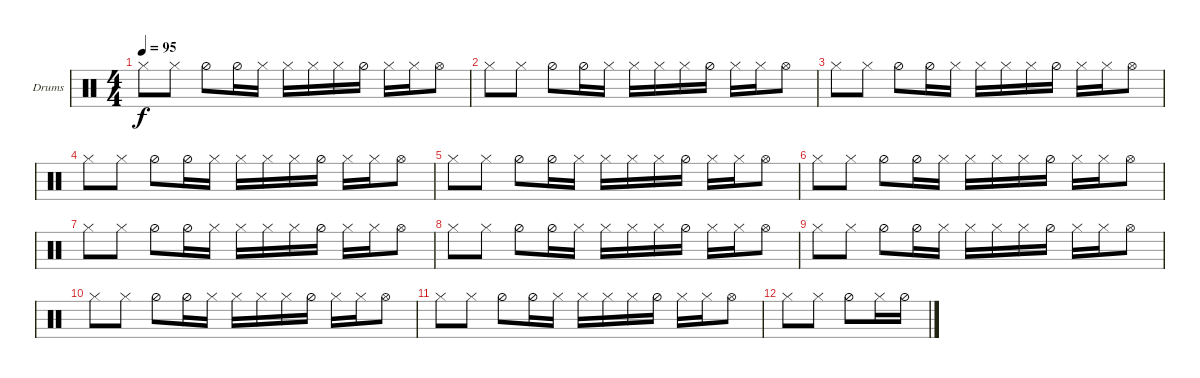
\defaultSystemsLayout 4
\bracketExtendMode groupsimilarinstruments
\firstSystemTrackNameOrientation horizontal
\otherSystemsTrackNameOrientation horizontal
\track ("Drumkit" "Drums") {instrument percussion}
\staff {score}
\articulation defaults
\ts (4 4)
\tempo 95
\clef neutral
\ks c "Hi-Hat (closed)".8{dy f} "Hi-Hat (closed)".8 "Hi-Hat (half)".8 "Hi-Hat (half)".16 "Hi-Hat (closed)".16 "Hi-Hat (closed)".16 "Hi-Hat (closed)".16 "Hi-Hat (closed)".16 "Hi-Hat (half)".16 "Hi-Hat (closed)".16 "Hi-Hat (closed)".16 "Hi-Hat (open)".8
|
"Hi-Hat (closed)".8 "Hi-Hat (closed)".8 "Hi-Hat (half)".8 "Hi-Hat (half)".16 "Hi-Hat (closed)".16 "Hi-Hat (closed)".16 "Hi-Hat (closed)".16 "Hi-Hat (closed)".16 "Hi-Hat (half)".16 "Hi-Hat (closed)".16 "Hi-Hat (closed)".16 "Hi-Hat (open)".8 |
"Hi-Hat (closed)".8 "Hi-Hat (closed)".8 "Hi-Hat (half)".8 "Hi-Hat (half)".16 "Hi-Hat (closed)".16 "Hi-Hat (closed)".16 "Hi-Hat (closed)".16 "Hi-Hat (closed)".16 "Hi-Hat (half)".16 "Hi-Hat (closed)".16 "Hi-Hat (closed)".16 "Hi-Hat (open)".8 |
"Hi-Hat (closed)".8 "Hi-Hat (closed)".8 "Hi-Hat (half)".8 "Hi-Hat (half)".16 "Hi-Hat (closed)".16 "Hi-Hat (closed)".16 "Hi-Hat (closed)".16 "Hi-Hat (closed)".16 "Hi-Hat (half)".16 "Hi-Hat (closed)".16 "Hi-Hat (closed)".16 "Hi-Hat (open)".8 |
"Hi-Hat (closed)".8 "Hi-Hat (closed)".8 "Hi-Hat (half)".8 "Hi-Hat (half)".16 "Hi-Hat (closed)".16 "Hi-Hat (closed)".16 "Hi-Hat (closed)".16 "Hi-Hat (closed)".16 "Hi-Hat (half)".16 "Hi-Hat (closed)".16 "Hi-Hat (closed)".16 "Hi-Hat (open)".8 |
"Hi-Hat (closed)".8 "Hi-Hat (closed)".8 "Hi-Hat (half)".8 "Hi-Hat (half)".16 "Hi-Hat (closed)".16 "Hi-Hat (closed)".16 "Hi-Hat (closed)".16 "Hi-Hat (closed)".16 "Hi-Hat (half)".16 "Hi-Hat (closed)".16 "Hi-Hat (closed)".16 "Hi-Hat (open)".8 |
"Hi-Hat (closed)".8 "Hi-Hat (closed)".8 "Hi-Hat (half)".8 "Hi-Hat (half)".16 "Hi-Hat (closed)".16 "Hi-Hat (closed)".16 "Hi-Hat (closed)".16 "Hi-Hat (closed)".16 "Hi-Hat (half)".16 "Hi-Hat (closed)".16 "Hi-Hat (closed)".16 "Hi-Hat (open)".8 |
"Hi-Hat (closed)".8 "Hi-Hat (closed)".8 "Hi-Hat (half)".8 "Hi-Hat (half)".16 "Hi-Hat (closed)".16 "Hi-Hat (closed)".16 "Hi-Hat (closed)".16 "Hi-Hat (closed)".16 "Hi-Hat (half)".16 "Hi-Hat (closed)".16 "Hi-Hat (closed)".16 "Hi-Hat (open)".8 |
"Hi-Hat (closed)".8 "Hi-Hat (closed)".8 "Hi-Hat (half)".8 "Hi-Hat (half)".16 "Hi-Hat (closed)".16 "Hi-Hat (closed)".16 "Hi-Hat (closed)".16 "Hi-Hat (closed)".16 "Hi-Hat (half)".16 "Hi-Hat (closed)".16 "Hi-Hat (closed)".16 "Hi-Hat (open)".8 |
"Hi-Hat (closed)".8 "Hi-Hat (closed)".8 "Hi-Hat (half)".8 "Hi-Hat (half)".16 "Hi-Hat (closed)".16 "Hi-Hat (closed)".16 "Hi-Hat (closed)".16 "Hi-Hat (closed)".16 "Hi-Hat (half)".16 "Hi-Hat (closed)".16 "Hi-Hat (closed)".16 "Hi-Hat (open)".8 |
"Hi-Hat (closed)".8 "Hi-Hat (closed)".8 "Hi-Hat (half)".8 "Hi-Hat (half)".16 "Hi-Hat (closed)".16 "Hi-Hat (closed)".16 "Hi-Hat (closed)".16 "Hi-Hat (closed)".16 "Hi-Hat (half)".16 "Hi-Hat (closed)".16 "Hi-Hat (closed)".16 "Hi-Hat (open)".8 |
"Hi-Hat (closed)".8 "Hi-Hat (closed)".8 "Hi-Hat (half)".8 "Hi-Hat (closed)".16 "Hi-Hat (half)".16
